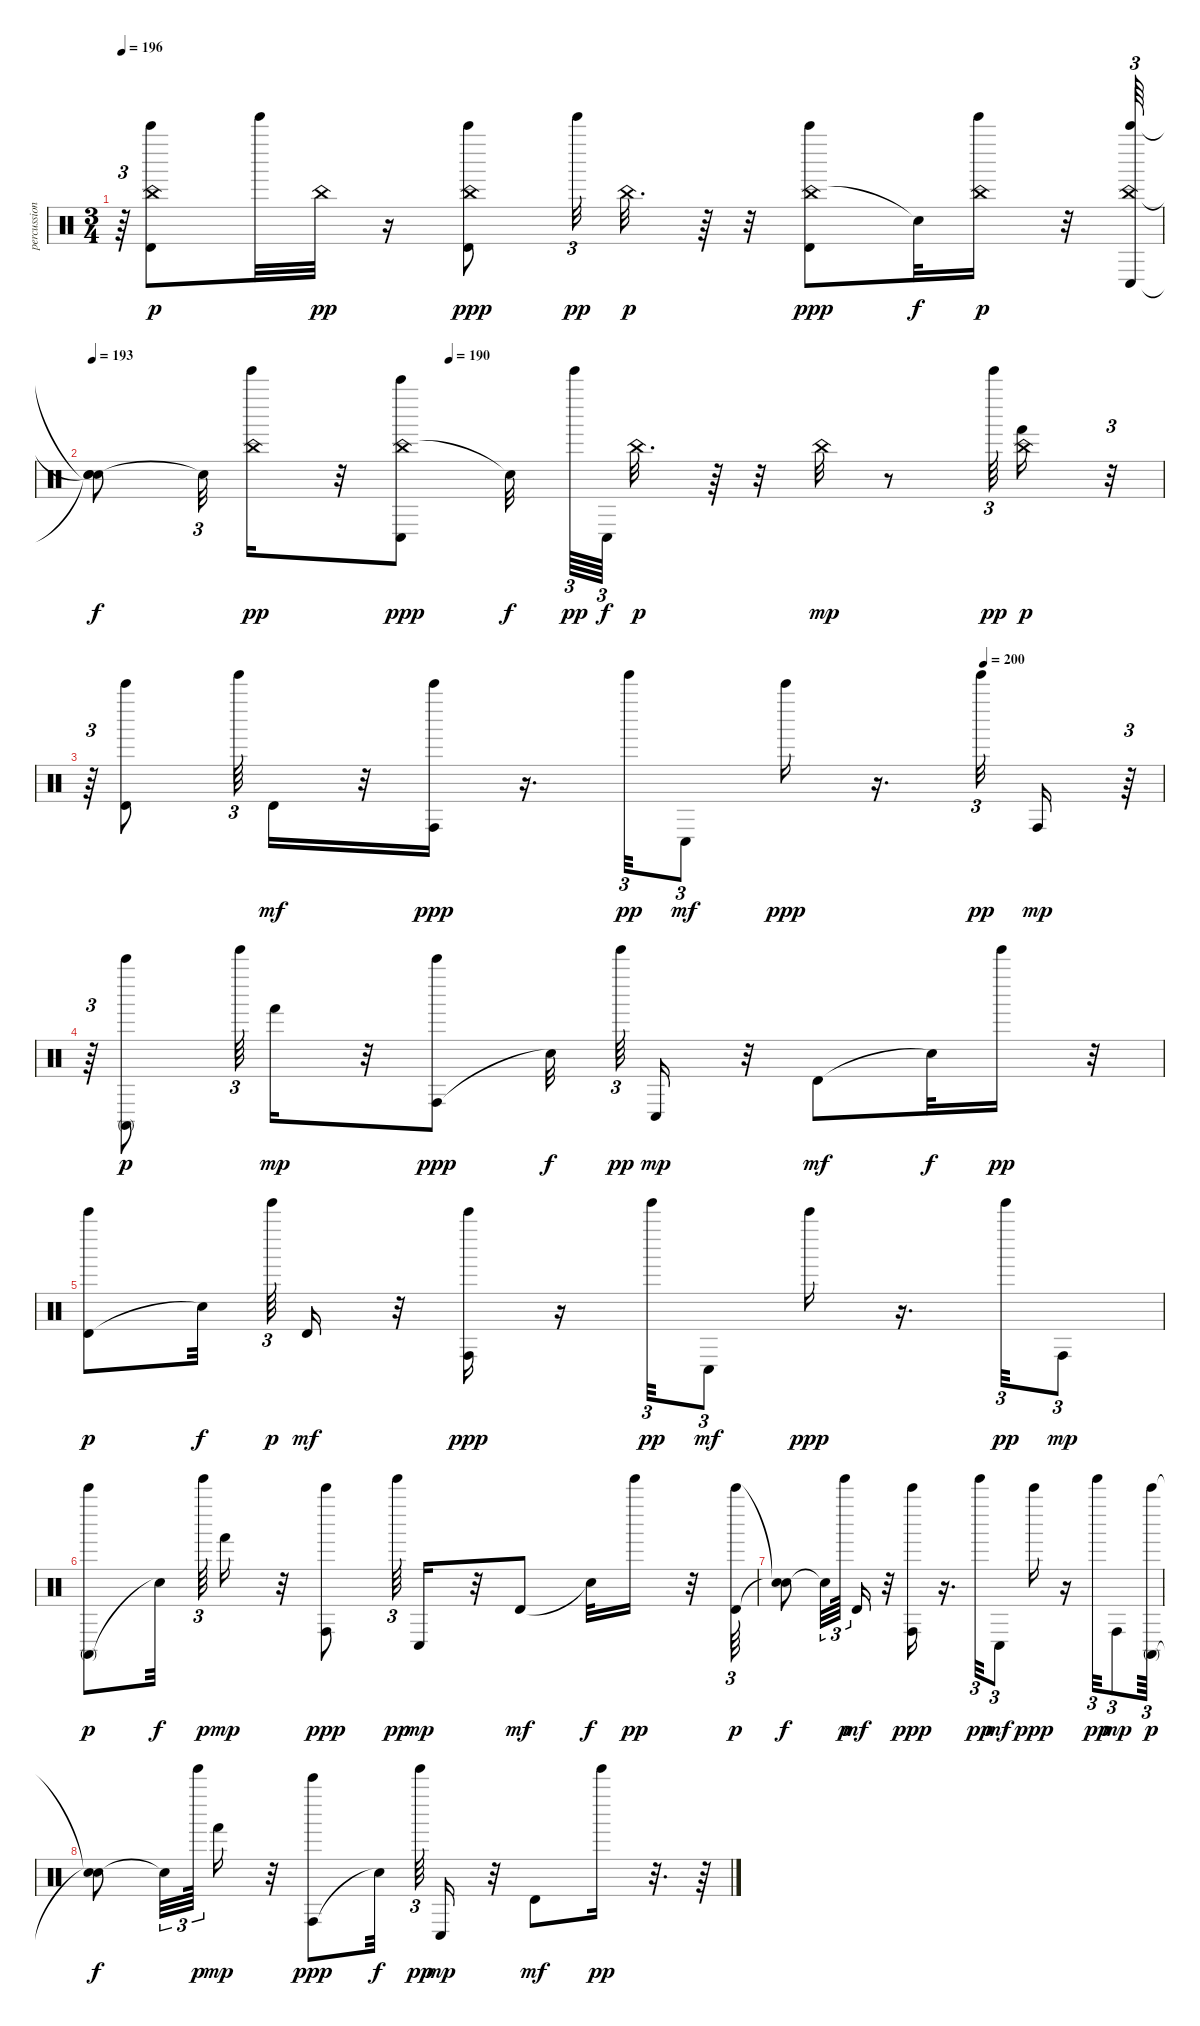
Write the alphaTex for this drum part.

\track ("percussion" "percussion") {instrument percussion}
\staff {score}
\articulation defaults
\ts (3 4)
\tempo 196
\clef neutral
\ks c
r.64{tu (3 2) dy p} ("China (hit)" "Timbale high (hit)" "Bell Tree (hit)").8 "Tinkle Bell (hit)".32 "China (hit)".32{dy pp} r.16 ("China (hit)" "Timbale high (hit)" "Bell Tree (hit)").8{dy ppp} "Tinkle Bell (hit)".32{tu (3 2) dy pp} "China (hit)".32{d dy p} r.64 r.32 ("China (hit)" "Timbale high (hit)" "Bell Tree (hit)").8{dy ppp} "Snare (hit)"{t}.32{dy f} ("Tinkle Bell (hit)" "China (hit)").16{dy p} r.32 ("China (hit)" "Conga low (hit)" "Bell Tree (hit)").64{tu (3 2)} |
\tempo 193
\tempo (190 0.3333333333333333)
("Snare (hit)"{t} "Snare (hit)"{t} "Snare (hit)"{t}).8{dy f} "Snare (hit)"{t}.32{tu (3 2)} ("Tinkle Bell (hit)" "China (hit)").16{dy pp} r.32 ("China (hit)" "Conga low (hit)" "Bell Tree (hit)").8{dy ppp} "Snare (hit)"{t}.32{dy f} "Tinkle Bell (hit)".64{tu (3 2) dy pp} "Conga low (hit)".64{tu (3 2) dy f} "China (hit)".32{d dy p} r.64 r.32 "China (hit)".32{dy mp} r.8 "Tinkle Bell (hit)".64{tu (3 2) dy pp} ("Hand (hit)" "China (hit)").16{dy p} r.32{tu (3 2)} |
\tempo (200 0.8333333333333334)
r.64{tu (3 2)} ("Timbale high (hit)" "Bell Tree (hit)").8 "Tinkle Bell (hit)".64{tu (3 2)} "Timbale high (hit)".16{dy mf} r.32 ("Conga high (hit)" "Bell Tree (hit)").16{dy ppp} r.16{d} "Tinkle Bell (hit)".32{tu (3 2) dy pp} "Conga low (hit)".8{tu (3 2) dy mf} "Bell Tree (hit)".16{dy ppp} r.16{d} "Tinkle Bell (hit)".32{tu (3 2) dy pp} "Conga high (hit)".16{dy mp} r.64{tu (3 2)} |
r.64{tu (3 2)} ("Conga high (mute)" "Bell Tree (hit)").8{dy p} "Tinkle Bell (hit)".64{tu (3 2)} "Hand (hit)".16{dy mp} r.32 ("Conga high (hit)" "Bell Tree (hit)").8{dy ppp} "Snare (hit)"{t}.32{dy f} "Tinkle Bell (hit)".64{tu (3 2) dy pp} "Conga low (hit)".16{dy mp} r.32 "Timbale high (hit)".8{dy mf} "Snare (hit)"{t}.32{dy f} "Tinkle Bell (hit)".16{dy pp} r.32 |
("Timbale high (hit)" "Bell Tree (hit)").8{dy p} "Snare (hit)"{t}.32{dy f} "Tinkle Bell (hit)".64{tu (3 2) dy p} "Timbale high (hit)".16{dy mf} r.32 ("Conga high (hit)" "Bell Tree (hit)").16{dy ppp} r.16 "Tinkle Bell (hit)".32{tu (3 2) dy pp} "Conga low (hit)".8{tu (3 2) dy mf} "Bell Tree (hit)".16{dy ppp} r.16{d} "Tinkle Bell (hit)".32{tu (3 2) dy pp} "Conga high (hit)".8{tu (3 2) dy mp} |
("Conga high (mute)" "Bell Tree (hit)").8{dy p} "Snare (hit)"{t}.32{dy f} "Tinkle Bell (hit)".64{tu (3 2) dy p} "Hand (hit)".16{dy mp} r.32 ("Conga high (hit)" "Bell Tree (hit)").8{dy ppp} "Tinkle Bell (hit)".64{tu (3 2) dy pp} "Conga low (hit)".16{dy mp} r.32 "Timbale high (hit)".8{dy mf} "Snare (hit)"{t}.32{dy f} "Tinkle Bell (hit)".16{dy pp} r.32 ("Timbale high (hit)" "Bell Tree (hit)").64{tu (3 2) dy p} |
("Snare (hit)"{t} "Snare (hit)"{t}).8{dy f} "Snare (hit)"{t}.32{tu (3 2)} "Tinkle Bell (hit)".64{tu (3 2) dy p} "Timbale high (hit)".16{dy mf} r.32 ("Conga high (hit)" "Bell Tree (hit)").16{dy ppp} r.16{d} "Tinkle Bell (hit)".32{tu (3 2) dy pp} "Conga low (hit)".8{tu (3 2) dy mf} "Bell Tree (hit)".16{dy ppp} r.16 "Tinkle Bell (hit)".32{tu (3 2) dy pp} "Conga high (hit)".8{tu (3 2) dy mp} ("Conga high (mute)" "Bell Tree (hit)").64{tu (3 2) dy p} |
("Snare (hit)"{t} "Snare (hit)"{t}).8{dy f} "Snare (hit)"{t}.32{tu (3 2)} "Tinkle Bell (hit)".64{tu (3 2) dy p} "Hand (hit)".16{dy mp} r.32 ("Conga high (hit)" "Bell Tree (hit)").8{dy ppp} "Snare (hit)"{t}.32{dy f} "Tinkle Bell (hit)".64{tu (3 2) dy pp} "Conga low (hit)".16{dy mp} r.32 "Timbale high (hit)".8{dy mf} "Tinkle Bell (hit)".16{dy pp} r.32{d} r.64
